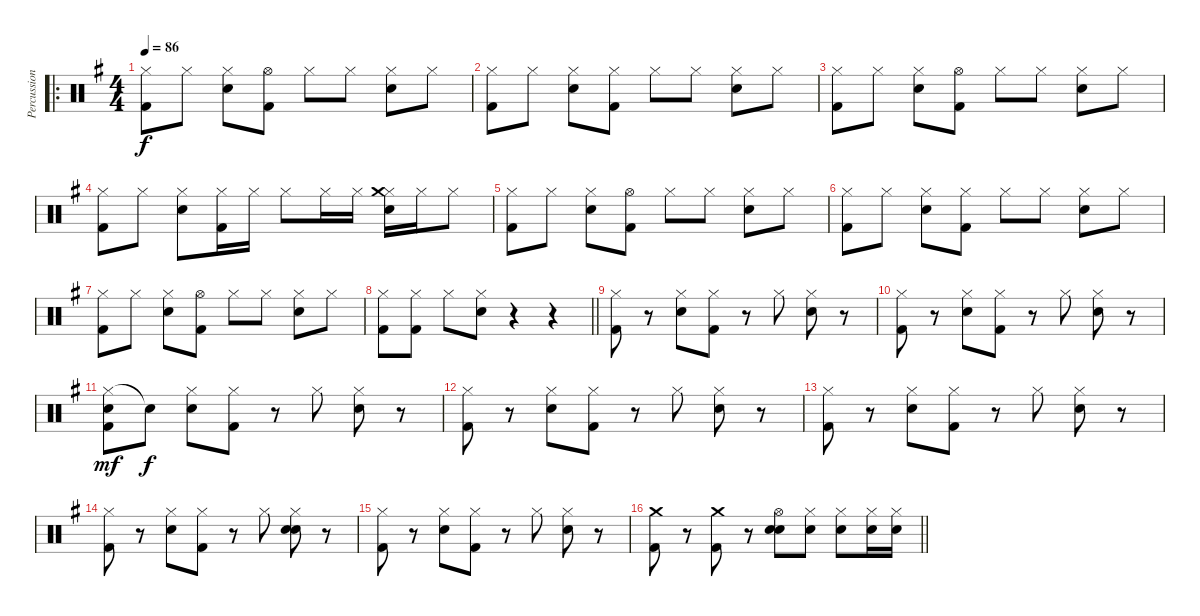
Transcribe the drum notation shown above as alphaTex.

\track ("Percussion" "Percussion") {instrument percussion}
\staff {score}
\articulation defaults
\ro
\ts (4 4)
\tempo 86
\clef neutral
\ks g
("Hi-Hat (closed)" "Kick (hit) 2").8{dy f} "Hi-Hat (closed)".8 ("Hi-Hat (closed)" "Hand Clap (hit)").8 ("Hi-Hat (open)" "Kick (hit) 2").8 "Hi-Hat (closed)".8 "Hi-Hat (closed)".8 ("Hi-Hat (closed)" "Hand Clap (hit)").8 "Hi-Hat (closed)".8 |
("Hi-Hat (closed)" "Kick (hit) 2").8 "Hi-Hat (closed)".8 ("Hi-Hat (closed)" "Hand Clap (hit)").8 ("Hi-Hat (closed)" "Kick (hit) 2").8 "Hi-Hat (closed)".8 "Hi-Hat (closed)".8 ("Hi-Hat (closed)" "Hand Clap (hit)").8 "Hi-Hat (closed)".8 |
("Hi-Hat (closed)" "Kick (hit) 2").8 "Hi-Hat (closed)".8 ("Hi-Hat (closed)" "Hand Clap (hit)").8 ("Hi-Hat (open)" "Kick (hit) 2").8 "Hi-Hat (closed)".8 "Hi-Hat (closed)".8 ("Hi-Hat (closed)" "Hand Clap (hit)").8 "Hi-Hat (closed)".8 |
("Hi-Hat (closed)" "Kick (hit) 2").8 "Hi-Hat (closed)".8 ("Hi-Hat (closed)" "Hand Clap (hit)").8 ("Hi-Hat (closed)" "Kick (hit) 2").16 "Hi-Hat (closed)".16 "Hi-Hat (closed)".8 "Hi-Hat (closed)".16 "Hi-Hat (closed)".16 ("Hi-Hat (closed)" "Crash medium (hit)" "Hand Clap (hit)").16 "Hi-Hat (closed)".16 "Hi-Hat (closed)".8 |
("Hi-Hat (closed)" "Kick (hit) 2").8 "Hi-Hat (closed)".8 ("Hi-Hat (closed)" "Hand Clap (hit)").8 ("Hi-Hat (open)" "Kick (hit) 2").8 "Hi-Hat (closed)".8 "Hi-Hat (closed)".8 ("Hi-Hat (closed)" "Hand Clap (hit)").8 "Hi-Hat (closed)".8 |
("Hi-Hat (closed)" "Kick (hit) 2").8 "Hi-Hat (closed)".8 ("Hi-Hat (closed)" "Hand Clap (hit)").8 ("Hi-Hat (closed)" "Kick (hit) 2").8 "Hi-Hat (closed)".8 "Hi-Hat (closed)".8 ("Hi-Hat (closed)" "Hand Clap (hit)").8 "Hi-Hat (closed)".8 |
("Hi-Hat (closed)" "Kick (hit) 2").8 "Hi-Hat (closed)".8 ("Hi-Hat (closed)" "Hand Clap (hit)").8 ("Hi-Hat (open)" "Kick (hit) 2").8 "Hi-Hat (closed)".8 "Hi-Hat (closed)".8 ("Hi-Hat (closed)" "Hand Clap (hit)").8 "Hi-Hat (closed)".8 |
\barLineRight lightlight
("Hi-Hat (closed)" "Kick (hit) 2").8 ("Hi-Hat (closed)" "Kick (hit) 2").8 "Hi-Hat (closed)".8 ("Hi-Hat (closed)" "Hand Clap (hit)").8 r.4 r.4 |
("Hi-Hat (closed)" "Kick (hit) 2").8 r.8 ("Hi-Hat (closed)" "Hand Clap (hit)").8 ("Hi-Hat (closed)" "Kick (hit) 2").8 r.8 "Hi-Hat (closed)".8 ("Hi-Hat (closed)" "Hand Clap (hit)").8 r.8 |
("Hi-Hat (closed)" "Kick (hit) 2").8 r.8 ("Hi-Hat (closed)" "Hand Clap (hit)").8 ("Hi-Hat (closed)" "Kick (hit) 2").8 r.8 "Hi-Hat (closed)".8 ("Hi-Hat (closed)" "Hand Clap (hit)").8 r.8 |
("Hi-Hat (closed)" "Snare (hit) 2" "Kick (hit) 2").8{dy mf} "Snare (hit)"{t}.8{dy f} ("Hi-Hat (closed)" "Hand Clap (hit)").8 ("Hi-Hat (closed)" "Kick (hit) 2").8 r.8 "Hi-Hat (closed)".8 ("Hi-Hat (closed)" "Hand Clap (hit)").8 r.8 |
("Hi-Hat (closed)" "Kick (hit) 2").8 r.8 ("Hi-Hat (closed)" "Hand Clap (hit)").8 ("Hi-Hat (closed)" "Kick (hit) 2").8 r.8 "Hi-Hat (closed)".8 ("Hi-Hat (closed)" "Hand Clap (hit)").8 r.8 |
("Hi-Hat (closed)" "Kick (hit) 2").8 r.8 ("Hi-Hat (closed)" "Hand Clap (hit)").8 ("Hi-Hat (closed)" "Kick (hit) 2").8 r.8 "Hi-Hat (closed)".8 ("Hi-Hat (closed)" "Hand Clap (hit)").8 r.8 |
("Hi-Hat (closed)" "Kick (hit) 2").8 r.8 ("Hi-Hat (closed)" "Hand Clap (hit)").8 ("Hi-Hat (closed)" "Kick (hit) 2").8 r.8 "Hi-Hat (closed)".8 ("Hi-Hat (closed)" "Snare (hit) 2" "Hand Clap (hit)").8 r.8 |
("Hi-Hat (closed)" "Kick (hit) 2").8 r.8 ("Hi-Hat (closed)" "Hand Clap (hit)").8 ("Hi-Hat (closed)" "Kick (hit) 2").8 r.8 "Hi-Hat (closed)".8 ("Hi-Hat (closed)" "Hand Clap (hit)").8 r.8 |
\barLineRight lightlight
("Crash medium (hit)" "Kick (hit) 2").8 r.8 ("Crash medium (hit)" "Kick (hit) 2").8 r.8 ("Hi-Hat (open)" "Snare (hit) 2" "Hand Clap (hit)").8 ("Hi-Hat (closed)" "Snare (hit) 2").8 ("Hi-Hat (closed)" "Electric Snare (hit)").8 ("Hi-Hat (closed)" "Snare (hit) 2").16 ("Hi-Hat (closed)" "Snare (hit) 2").16
